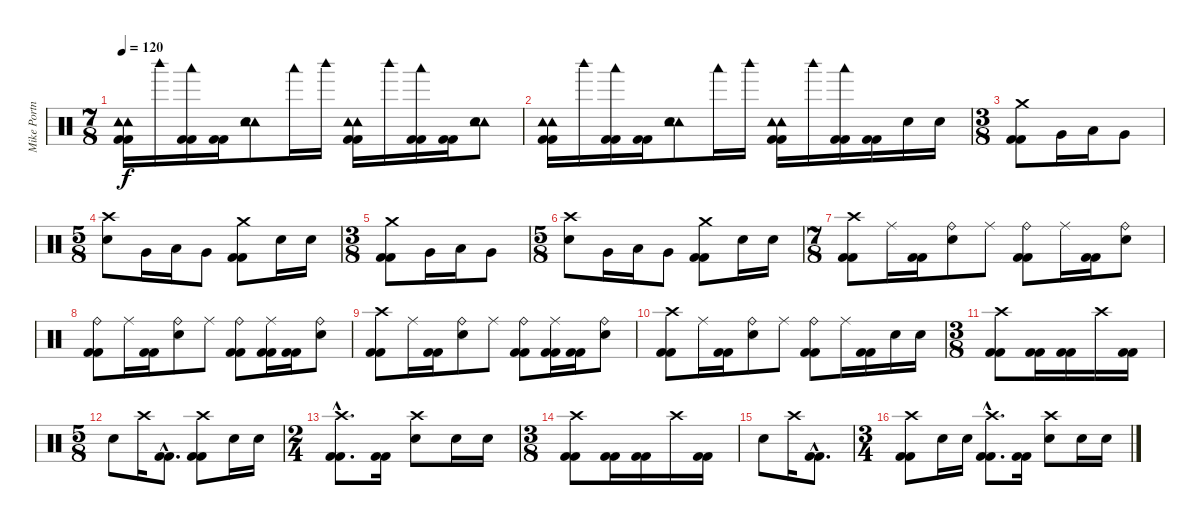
\track ("Mike Portnoy - Drum" "Mike Portn") {instrument percussion}
\staff {score}
\articulation defaults
\ts (7 8)
\tempo 120
\clef neutral
\ks c
("Tambourine (hit)" "Tambourine (hit)" "Kick (hit) 2" "Kick (hit) 2").16{dy f} "Woodblock high (hit)".16 ("Woodblock low (hit)" "Kick (hit) 2" "Kick (hit) 2").16 ("Kick (hit) 2" "Kick (hit) 2").16 ("Tambourine (hit)" "Tambourine (hit)" "Snare (hit) 2").8 "Woodblock low (hit)".16 "Woodblock high (hit)".16 ("Tambourine (hit)" "Tambourine (hit)" "Kick (hit) 2" "Kick (hit) 2").16 "Woodblock high (hit)".16 ("Woodblock low (hit)" "Kick (hit) 2" "Kick (hit) 2").16 ("Kick (hit) 2" "Kick (hit) 2").16 ("Tambourine (hit)" "Tambourine (hit)" "Snare (hit) 2").8 |
("Tambourine (hit)" "Tambourine (hit)" "Kick (hit) 2" "Kick (hit) 2").16 "Woodblock high (hit)".16 ("Woodblock low (hit)" "Kick (hit) 2" "Kick (hit) 2").16 ("Kick (hit) 2" "Kick (hit) 2").16 ("Tambourine (hit)" "Tambourine (hit)" "Snare (hit) 2").8 "Woodblock low (hit)".16 "Woodblock high (hit)".16 ("Tambourine (hit)" "Tambourine (hit)" "Kick (hit) 2" "Kick (hit) 2").16 "Woodblock high (hit)".16 ("Woodblock low (hit)" "Kick (hit) 2" "Kick (hit) 2").16 ("Kick (hit) 2" "Kick (hit) 2").16 "Snare (hit) 2".16 "Snare (hit) 2".16 |
\ts (3 8)
("Crash medium (hit)" "Kick (hit) 2" "Kick (hit) 2").8 "Very Low Tom (hit)".16 "Low Tom (hit)".16 "Very Low Tom (hit)".8 |
\ts (5 8)
("Crash high (hit)" "Snare (hit) 2").8 "Very Low Tom (hit)".16 "Low Tom (hit)".16 "Very Low Tom (hit)".8 ("Crash medium (hit)" "Kick (hit) 2" "Kick (hit) 2").8 "Snare (hit) 2".16 "Snare (hit) 2".16 |
\ts (3 8)
("Crash medium (hit)" "Kick (hit) 2" "Kick (hit) 2").8 "Very Low Tom (hit)".16 "Low Tom (hit)".16 "Very Low Tom (hit)".8 |
\ts (5 8)
("Crash high (hit)" "Snare (hit) 2").8 "Very Low Tom (hit)".16 "Low Tom (hit)".16 "Very Low Tom (hit)".8 ("Crash medium (hit)" "Kick (hit) 2" "Kick (hit) 2").8 "Snare (hit) 2".16 "Snare (hit) 2".16 |
\ts (7 8)
("Crash high (hit)" "Kick (hit) 2" "Kick (hit) 2").8 "Ride (middle)".16 ("Kick (hit) 2" "Kick (hit) 2").16 ("Ride (bell)" "Snare (hit) 2").8 "Ride (middle)".8 ("Ride (bell)" "Kick (hit) 2" "Kick (hit) 2").8 "Ride (middle)".16 ("Kick (hit) 2" "Kick (hit) 2").16 ("Ride (bell)" "Snare (hit) 2").8 |
("Ride (bell)" "Kick (hit) 2" "Kick (hit) 2").8 "Ride (middle)".16 ("Kick (hit) 2" "Kick (hit) 2").16 ("Ride (bell)" "Snare (hit) 2").8 "Ride (middle)".8 ("Ride (bell)" "Kick (hit) 2" "Kick (hit) 2").8 ("Ride (middle)" "Kick (hit) 2" "Kick (hit) 2").16 ("Kick (hit) 2" "Kick (hit) 2").16 ("Ride (bell)" "Snare (hit) 2").8 |
("Crash high (hit)" "Kick (hit) 2" "Kick (hit) 2").8 "Ride (middle)".16 ("Kick (hit) 2" "Kick (hit) 2").16 ("Ride (bell)" "Snare (hit) 2").8 "Ride (middle)".8 ("Ride (bell)" "Kick (hit) 2" "Kick (hit) 2").8 ("Ride (middle)" "Kick (hit) 2" "Kick (hit) 2").16 ("Kick (hit) 2" "Kick (hit) 2").16 ("Ride (bell)" "Snare (hit) 2").8 |
("Crash high (hit)" "Kick (hit) 2" "Kick (hit) 2").8 "Ride (middle)".16 ("Kick (hit) 2" "Kick (hit) 2").16 ("Ride (bell)" "Snare (hit) 2").8 "Ride (middle)".8 ("Ride (bell)" "Kick (hit) 2" "Kick (hit) 2").8 "Ride (middle)".16 ("Kick (hit) 2" "Kick (hit) 2").16 "Snare (hit) 2".16 "Snare (hit) 2".16 |
\ts (3 8)
("Crash high (hit)" "Kick (hit) 2" "Kick (hit) 2").8 ("Kick (hit) 2" "Kick (hit) 2").16 ("Kick (hit) 2" "Kick (hit) 2").16 "Crash high (hit)".16 ("Kick (hit) 2" "Kick (hit) 2").16 |
\ts (5 8)
"Snare (hit) 2".8 "Crash high (hit)".16 ("Kick (hit) 2"{hac} "Kick (hit) 2"{hac}).8{d} ("Crash high (hit)" "Kick (hit) 2" "Kick (hit) 2").8 "Snare (hit) 2".16 "Snare (hit) 2".16 |
\ts (2 4)
("Crash high (hit)"{hac} "Kick (hit) 2"{hac} "Kick (hit) 2"{hac}).8{d} ("Kick (hit) 2" "Kick (hit) 2").16 ("Crash high (hit)" "Snare (hit) 2").8 "Snare (hit) 2".16 "Snare (hit) 2".16 |
\ts (3 8)
("Crash high (hit)" "Kick (hit) 2" "Kick (hit) 2").8 ("Kick (hit) 2" "Kick (hit) 2").16 ("Kick (hit) 2" "Kick (hit) 2").16 "Crash high (hit)".16 ("Kick (hit) 2" "Kick (hit) 2").16 |
"Snare (hit) 2".8 "Crash high (hit)".16 ("Kick (hit) 2"{hac} "Kick (hit) 2"{hac}).8{d} |
\ts (3 4)
("Crash high (hit)" "Kick (hit) 2" "Kick (hit) 2").8 "Snare (hit) 2".16 "Snare (hit) 2".16 ("Crash high (hit)"{hac} "Kick (hit) 2"{hac} "Kick (hit) 2"{hac}).8{d} ("Kick (hit) 2" "Kick (hit) 2").16 ("Crash high (hit)" "Snare (hit) 2").8 "Snare (hit) 2".16 "Snare (hit) 2".16
